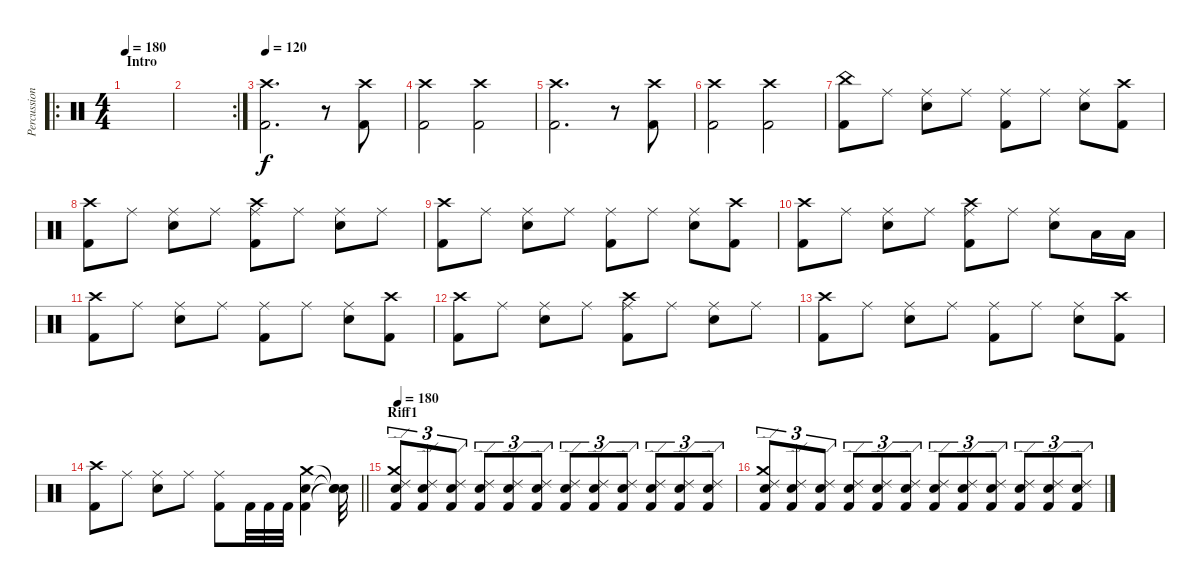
\track ("Percussioni" "Percussion") {instrument percussion}
\staff {score}
\articulation defaults
\ro
\ts (4 4)
\section ("" "Intro")
\tempo 180
\tempo 120
\tempo 180
\clef neutral
\ks c
|
\rc 2
|
\tempo 120
("Crash high (hit)" "Kick (hit) 2").2{d} r.8 ("Crash high (hit)" "Kick (hit) 2").8 |
("Crash high (hit)" "Kick (hit) 2").2 ("Crash high (hit)" "Kick (hit) 2").2 |
("Crash high (hit)" "Kick (hit) 2").2{d} r.8 ("Crash high (hit)" "Kick (hit) 2").8 |
("Crash high (hit)" "Kick (hit) 2").2 ("Crash high (hit)" "Kick (hit) 2").2 |
("China (hit)" "Kick (hit) 2").8 "Ride (middle)".8 ("Ride (middle)" "Electric Snare (hit)").8 "Ride (middle)".8 ("Ride (middle)" "Kick (hit) 2").8 "Ride (middle)".8 ("Ride (middle)" "Electric Snare (hit)").8 ("Crash high (hit)" "Kick (hit) 2").8 |
("Crash high (hit)" "Kick (hit) 2").8 "Ride (middle)".8 ("Ride (middle)" "Electric Snare (hit)").8 "Ride (middle)".8 ("Crash high (hit)" "Ride (middle)" "Kick (hit) 2").8 "Ride (middle)".8 ("Ride (middle)" "Electric Snare (hit)").8 "Ride (middle)".8 |
("Crash high (hit)" "Kick (hit) 2").8 "Ride (middle)".8 ("Ride (middle)" "Electric Snare (hit)").8 "Ride (middle)".8 ("Ride (middle)" "Kick (hit) 2").8 "Ride (middle)".8 ("Ride (middle)" "Electric Snare (hit)").8 ("Crash high (hit)" "Kick (hit) 2").8 |
("Crash high (hit)" "Kick (hit) 2").8 "Ride (middle)".8 ("Ride (middle)" "Electric Snare (hit)").8 "Ride (middle)".8 ("Crash high (hit)" "Ride (middle)" "Kick (hit) 2").8 "Ride (middle)".8 ("Ride (middle)" "Electric Snare (hit)").8 "Low Tom (hit)".16 "Low Tom (hit)".16 |
("Crash high (hit)" "Kick (hit) 2").8 "Ride (middle)".8 ("Ride (middle)" "Electric Snare (hit)").8 "Ride (middle)".8 ("Ride (middle)" "Kick (hit) 2").8 "Ride (middle)".8 ("Ride (middle)" "Electric Snare (hit)").8 ("Crash high (hit)" "Kick (hit) 2").8 |
("Crash high (hit)" "Kick (hit) 2").8 "Ride (middle)".8 ("Ride (middle)" "Electric Snare (hit)").8 "Ride (middle)".8 ("Crash high (hit)" "Ride (middle)" "Kick (hit) 2").8 "Ride (middle)".8 ("Ride (middle)" "Electric Snare (hit)").8 "Ride (middle)".8 |
("Crash high (hit)" "Kick (hit) 2").8 "Ride (middle)".8 ("Ride (middle)" "Electric Snare (hit)").8 "Ride (middle)".8 ("Ride (middle)" "Kick (hit) 2").8 "Ride (middle)".8 ("Ride (middle)" "Electric Snare (hit)").8 ("Crash high (hit)" "Kick (hit) 2").8 |
\barLineRight lightlight
("Crash high (hit)" "Kick (hit) 2").8 "Ride (middle)".8 ("Ride (middle)" "Electric Snare (hit)").8 "Ride (middle)".8 ("Ride (middle)" "Kick (hit) 2").8 "Kick (hit) 2".32 "Kick (hit) 2".32 "Kick (hit) 2".32 ("Crash medium (hit)" "Electric Snare (hit)" "Kick (hit) 2").4 ("Snare (hit)"{t} "Snare (hit)"{t} "Snare (hit)"{t}).32 |
\section ("" "Riff1")
\tempo 180
("Crash medium (hit)" "Ride (edge) 2" "Snare (hit) 2" "Kick (hit) 2").8{tu (3 2)} ("Ride (edge) 2" "Snare (hit) 2" "Kick (hit) 2").8{tu (3 2)} ("Ride (edge) 2" "Snare (hit) 2" "Kick (hit) 2").8{tu (3 2)} ("Ride (edge) 2" "Snare (hit) 2" "Kick (hit) 2").8{tu (3 2)} ("Ride (edge) 2" "Snare (hit) 2" "Kick (hit) 2").8{tu (3 2)} ("Ride (edge) 2" "Snare (hit) 2" "Kick (hit) 2").8{tu (3 2)} ("Ride (edge) 2" "Snare (hit) 2" "Kick (hit) 2").8{tu (3 2)} ("Ride (edge) 2" "Snare (hit) 2" "Kick (hit) 2").8{tu (3 2)} ("Ride (edge) 2" "Snare (hit) 2" "Kick (hit) 2").8{tu (3 2)} ("Ride (edge) 2" "Snare (hit) 2" "Kick (hit) 2").8{tu (3 2)} ("Ride (edge) 2" "Snare (hit) 2" "Kick (hit) 2").8{tu (3 2)} ("Ride (edge) 2" "Snare (hit) 2" "Kick (hit) 2").8{tu (3 2)} |
("Crash medium (hit)" "Ride (edge) 2" "Snare (hit) 2" "Kick (hit) 2").8{tu (3 2)} ("Ride (edge) 2" "Snare (hit) 2" "Kick (hit) 2").8{tu (3 2)} ("Ride (edge) 2" "Snare (hit) 2" "Kick (hit) 2").8{tu (3 2)} ("Ride (edge) 2" "Snare (hit) 2" "Kick (hit) 2").8{tu (3 2)} ("Ride (edge) 2" "Snare (hit) 2" "Kick (hit) 2").8{tu (3 2)} ("Ride (edge) 2" "Snare (hit) 2" "Kick (hit) 2").8{tu (3 2)} ("Ride (edge) 2" "Snare (hit) 2" "Kick (hit) 2").8{tu (3 2)} ("Ride (edge) 2" "Snare (hit) 2" "Kick (hit) 2").8{tu (3 2)} ("Ride (edge) 2" "Snare (hit) 2" "Kick (hit) 2").8{tu (3 2)} ("Ride (edge) 2" "Snare (hit) 2" "Kick (hit) 2").8{tu (3 2)} ("Ride (edge) 2" "Snare (hit) 2" "Kick (hit) 2").8{tu (3 2)} ("Ride (edge) 2" "Snare (hit) 2" "Kick (hit) 2").8{tu (3 2)}
